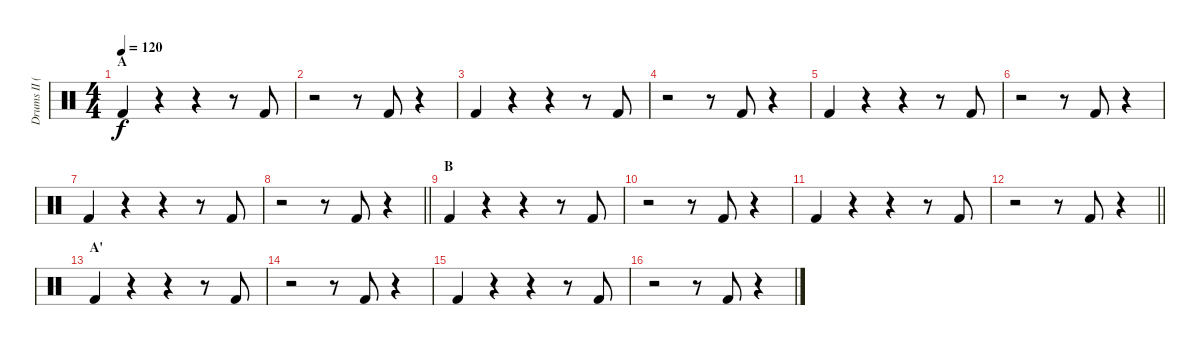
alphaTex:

\track ("Drums II (Ruka)" "Drums II (") {instrument percussion}
\staff {score}
\articulation defaults
\ts (4 4)
\section ("" "A")
\tempo 120
\clef neutral
\ks c "Kick (hit) 2".4{dy f}
r.4 r.4 r.8 "Kick (hit) 2".8 |
r.2 r.8 "Kick (hit) 2".8 r.4 |
"Kick (hit) 2".4 r.4 r.4 r.8 "Kick (hit) 2".8 |
r.2 r.8 "Kick (hit) 2".8 r.4 |
"Kick (hit) 2".4 r.4 r.4 r.8 "Kick (hit) 2".8 |
r.2 r.8 "Kick (hit) 2".8 r.4 |
"Kick (hit) 2".4 r.4 r.4 r.8 "Kick (hit) 2".8 |
\barLineRight lightlight
r.2 r.8 "Kick (hit) 2".8 r.4 |
\section ("" "B")
"Kick (hit) 2".4 r.4 r.4 r.8 "Kick (hit) 2".8 |
r.2 r.8 "Kick (hit) 2".8 r.4 |
"Kick (hit) 2".4 r.4 r.4 r.8 "Kick (hit) 2".8 |
\barLineRight lightlight
r.2 r.8 "Kick (hit) 2".8 r.4 |
\section ("" "A'")
"Kick (hit) 2".4 r.4 r.4 r.8 "Kick (hit) 2".8 |
r.2 r.8 "Kick (hit) 2".8 r.4 |
"Kick (hit) 2".4 r.4 r.4 r.8 "Kick (hit) 2".8 |
r.2 r.8 "Kick (hit) 2".8 r.4
